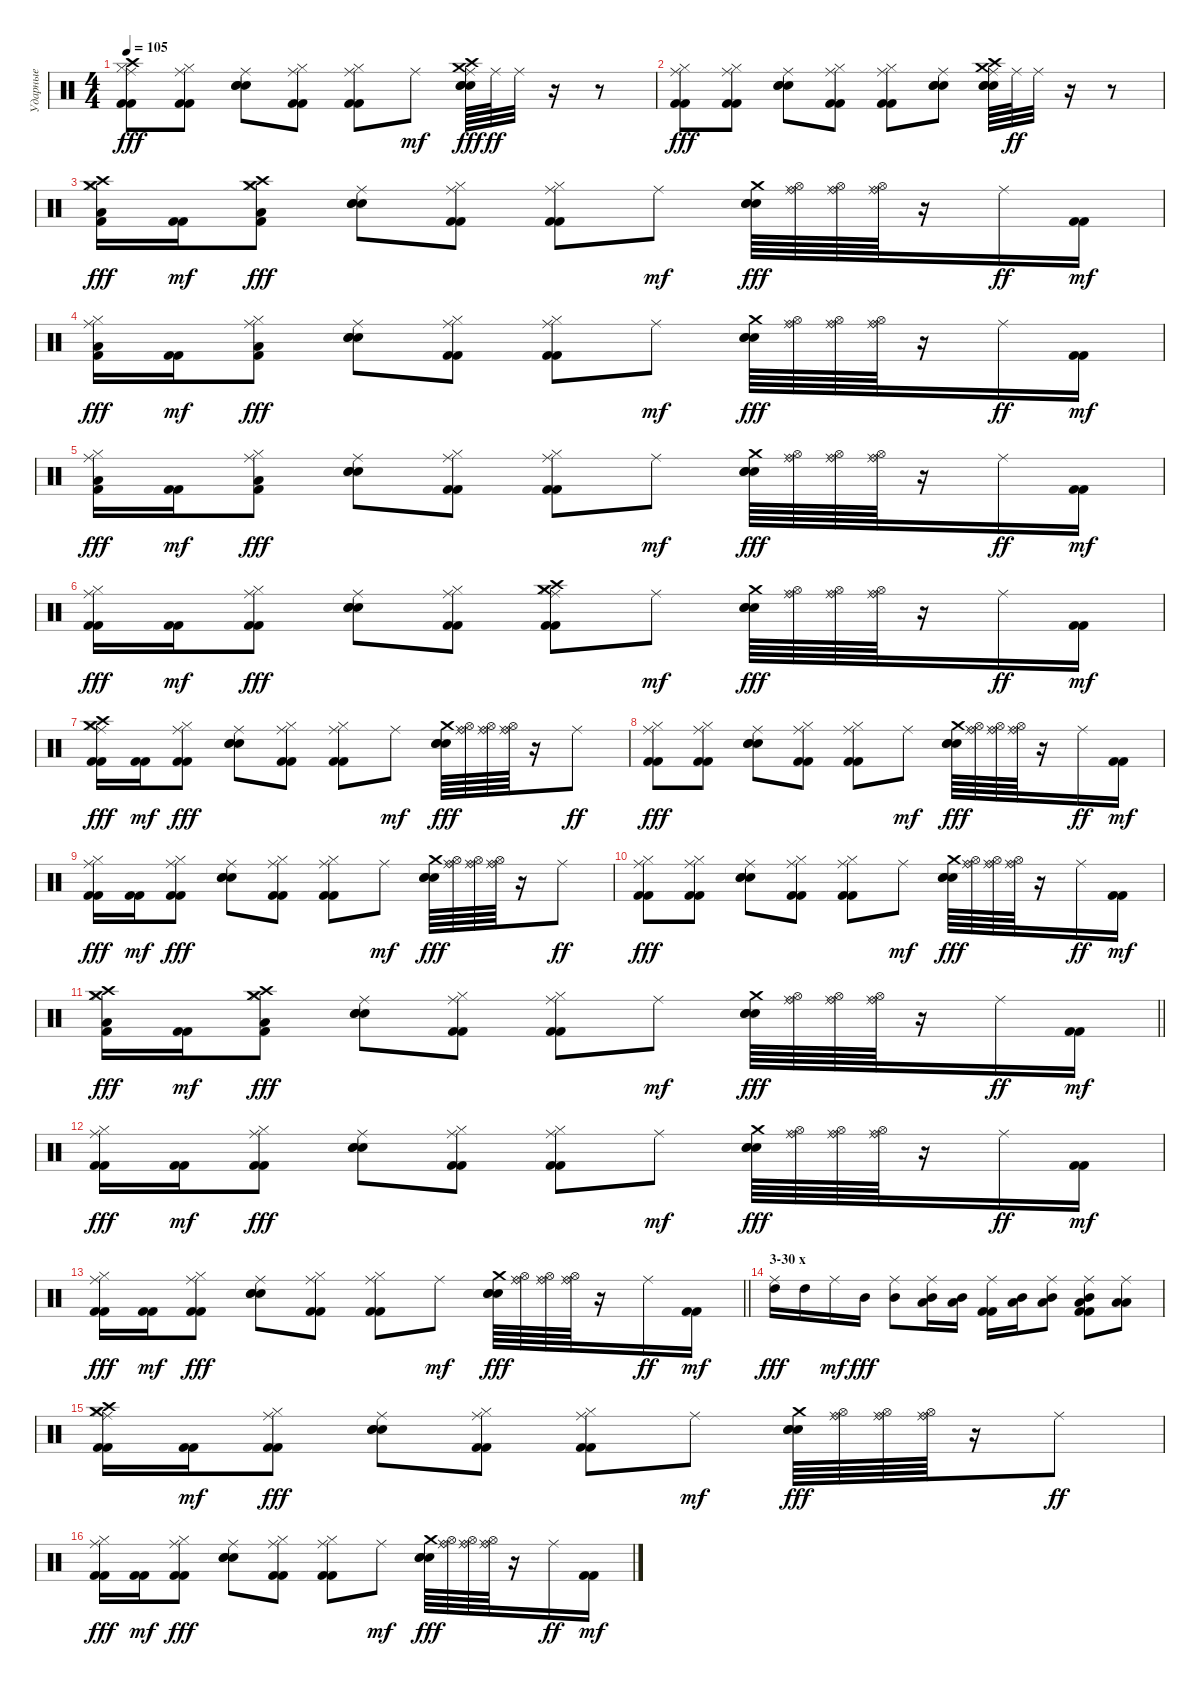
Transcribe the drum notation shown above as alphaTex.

\track ("Ударные" "Ударные") {instrument percussion}
\staff {score}
\articulation defaults
\ts (4 4)
\tempo 105
\clef neutral
\ks c
("Ride (middle)" "Hi-Hat (closed)" "Kick (hit) 2" "Kick (hit) 2" "Crash high (hit)").8{dy fff} ("Ride (middle)" "Hi-Hat (closed)" "Kick (hit) 2" "Kick (hit) 2").8 ("Ride (middle)" "Snare (hit) 2" "Electric Snare (hit)" "Hand Clap (hit)").8 ("Ride (middle)" "Hi-Hat (closed)" "Kick (hit) 2" "Kick (hit) 2").8 ("Ride (middle)" "Hi-Hat (closed)" "Kick (hit) 2" "Kick (hit) 2").8 "Ride (middle)".8{dy mf} ("Ride (middle)" "Crash medium (hit)" "Snare (hit) 2" "Crash high (hit)" "Electric Snare (hit)" "Hand Clap (hit)").64{dy fff} "Ride (middle)".64{dy ff} "Ride (middle)".32 r.16 r.8 |
("Ride (middle)" "Hi-Hat (closed)" "Kick (hit) 2" "Kick (hit) 2").8{dy fff} ("Ride (middle)" "Hi-Hat (closed)" "Kick (hit) 2" "Kick (hit) 2").8 ("Ride (middle)" "Snare (hit) 2" "Electric Snare (hit)" "Hand Clap (hit)").8 ("Ride (middle)" "Hi-Hat (closed)" "Kick (hit) 2" "Kick (hit) 2").8 ("Ride (middle)" "Hi-Hat (closed)" "Kick (hit) 2" "Kick (hit) 2").8 ("Ride (middle)" "Snare (hit) 2" "Electric Snare (hit)" "Hand Clap (hit)").8 ("Ride (middle)" "Crash medium (hit)" "Snare (hit) 2" "Crash high (hit)" "Electric Snare (hit)" "Hand Clap (hit)").64 "Ride (middle)".64{dy ff} "Ride (middle)".32 r.16 r.8 |
("Crash medium (hit)" "Crash high (hit)" "Hi-Hat (closed)" "Kick (hit) 2" "Low Floor Tom (hit)").16{dy fff} ("Kick (hit) 2" "Kick (hit) 2").16{dy mf} ("Crash medium (hit)" "Crash high (hit)" "Hi-Hat (closed)" "Kick (hit) 2" "Low Floor Tom (hit)").8{dy fff} ("Ride (middle)" "Snare (hit) 2" "Electric Snare (hit)" "Hand Clap (hit)").8 ("Ride (middle)" "Hi-Hat (closed)" "Kick (hit) 2" "Kick (hit) 2").8 ("Ride (middle)" "Hi-Hat (closed)" "Kick (hit) 2" "Kick (hit) 2").8 "Ride (middle)".8{dy mf} ("Crash medium (hit)" "Snare (hit) 2" "Electric Snare (hit)" "Hand Clap (hit)").64{dy fff} ("Ride (middle)" "Hi-Hat (open)" "Ride (bell)").64 ("Ride (middle)" "Hi-Hat (open)" "Ride (bell)").64 ("Ride (middle)" "Hi-Hat (open)" "Ride (bell)").64 r.16 "Ride (middle)".16{dy ff} ("Kick (hit) 2" "Kick (hit) 2").16{dy mf} |
("Ride (middle)" "Hi-Hat (closed)" "Kick (hit) 2" "Low Floor Tom (hit)").16{dy fff} ("Kick (hit) 2" "Kick (hit) 2").16{dy mf} ("Ride (middle)" "Hi-Hat (closed)" "Kick (hit) 2" "Low Floor Tom (hit)").8{dy fff} ("Ride (middle)" "Snare (hit) 2" "Electric Snare (hit)" "Hand Clap (hit)").8 ("Ride (middle)" "Hi-Hat (closed)" "Kick (hit) 2" "Kick (hit) 2").8 ("Ride (middle)" "Hi-Hat (closed)" "Kick (hit) 2" "Kick (hit) 2").8 "Ride (middle)".8{dy mf} ("Crash medium (hit)" "Snare (hit) 2" "Electric Snare (hit)" "Hand Clap (hit)").64{dy fff} ("Ride (middle)" "Hi-Hat (open)" "Ride (bell)").64 ("Ride (middle)" "Hi-Hat (open)" "Ride (bell)").64 ("Ride (middle)" "Hi-Hat (open)" "Ride (bell)").64 r.16 "Ride (middle)".16{dy ff} ("Kick (hit) 2" "Kick (hit) 2").16{dy mf} |
("Ride (middle)" "Hi-Hat (closed)" "Kick (hit) 2" "Low Floor Tom (hit)").16{dy fff} ("Kick (hit) 2" "Kick (hit) 2").16{dy mf} ("Ride (middle)" "Hi-Hat (closed)" "Kick (hit) 2" "Low Floor Tom (hit)").8{dy fff} ("Ride (middle)" "Snare (hit) 2" "Electric Snare (hit)" "Hand Clap (hit)").8 ("Ride (middle)" "Hi-Hat (closed)" "Kick (hit) 2" "Kick (hit) 2").8 ("Ride (middle)" "Hi-Hat (closed)" "Kick (hit) 2" "Kick (hit) 2").8 "Ride (middle)".8{dy mf} ("Crash medium (hit)" "Snare (hit) 2" "Electric Snare (hit)" "Hand Clap (hit)").64{dy fff} ("Ride (middle)" "Hi-Hat (open)" "Ride (bell)").64 ("Ride (middle)" "Hi-Hat (open)" "Ride (bell)").64 ("Ride (middle)" "Hi-Hat (open)" "Ride (bell)").64 r.16 "Ride (middle)".16{dy ff} ("Kick (hit) 2" "Kick (hit) 2").16{dy mf} |
("Ride (middle)" "Hi-Hat (closed)" "Kick (hit) 2" "Kick (hit) 2").16{dy fff} ("Kick (hit) 2" "Kick (hit) 2").16{dy mf} ("Ride (middle)" "Hi-Hat (closed)" "Kick (hit) 2" "Kick (hit) 2").8{dy fff} ("Ride (middle)" "Snare (hit) 2" "Electric Snare (hit)" "Hand Clap (hit)").8 ("Ride (middle)" "Hi-Hat (closed)" "Kick (hit) 2" "Kick (hit) 2").8 ("Ride (middle)" "Crash high (hit)" "Hi-Hat (closed)" "Kick (hit) 2" "Kick (hit) 2" "Crash medium (hit)").8 "Ride (middle)".8{dy mf} ("Crash medium (hit)" "Snare (hit) 2" "Electric Snare (hit)" "Hand Clap (hit)").64{dy fff} ("Ride (middle)" "Hi-Hat (open)" "Ride (bell)").64 ("Ride (middle)" "Hi-Hat (open)" "Ride (bell)").64 ("Ride (middle)" "Hi-Hat (open)" "Ride (bell)").64 r.16 "Ride (middle)".16{dy ff} ("Kick (hit) 2" "Kick (hit) 2").16{dy mf} |
("Ride (middle)" "Crash high (hit)" "Hi-Hat (closed)" "Kick (hit) 2" "Kick (hit) 2" "Crash medium (hit)").16{dy fff} ("Kick (hit) 2" "Kick (hit) 2").16{dy mf} ("Ride (middle)" "Hi-Hat (closed)" "Kick (hit) 2" "Kick (hit) 2").8{dy fff} ("Ride (middle)" "Snare (hit) 2" "Electric Snare (hit)" "Hand Clap (hit)").8 ("Ride (middle)" "Hi-Hat (closed)" "Kick (hit) 2" "Kick (hit) 2").8 ("Ride (middle)" "Hi-Hat (closed)" "Kick (hit) 2" "Kick (hit) 2").8 "Ride (middle)".8{dy mf} ("Crash medium (hit)" "Snare (hit) 2" "Electric Snare (hit)" "Hand Clap (hit)").64{dy fff} ("Ride (middle)" "Hi-Hat (open)" "Ride (bell)").64 ("Ride (middle)" "Hi-Hat (open)" "Ride (bell)").64 ("Ride (middle)" "Hi-Hat (open)" "Ride (bell)").64 r.16 "Ride (middle)".8{dy ff} |
("Ride (middle)" "Hi-Hat (closed)" "Kick (hit) 2" "Kick (hit) 2").8{dy fff} ("Ride (middle)" "Hi-Hat (closed)" "Kick (hit) 2" "Kick (hit) 2").8 ("Ride (middle)" "Snare (hit) 2" "Electric Snare (hit)" "Hand Clap (hit)").8 ("Ride (middle)" "Hi-Hat (closed)" "Kick (hit) 2" "Kick (hit) 2").8 ("Ride (middle)" "Hi-Hat (closed)" "Kick (hit) 2" "Kick (hit) 2").8 "Ride (middle)".8{dy mf} ("Crash medium (hit)" "Snare (hit) 2" "Electric Snare (hit)" "Hand Clap (hit)").64{dy fff} ("Ride (middle)" "Hi-Hat (open)" "Ride (bell)").64 ("Ride (middle)" "Hi-Hat (open)" "Ride (bell)").64 ("Ride (middle)" "Hi-Hat (open)" "Ride (bell)").64 r.16 "Ride (middle)".16{dy ff} ("Kick (hit) 2" "Kick (hit) 2").16{dy mf} |
("Ride (middle)" "Hi-Hat (closed)" "Kick (hit) 2" "Kick (hit) 2").16{dy fff} ("Kick (hit) 2" "Kick (hit) 2").16{dy mf} ("Ride (middle)" "Hi-Hat (closed)" "Kick (hit) 2" "Kick (hit) 2").8{dy fff} ("Ride (middle)" "Snare (hit) 2" "Electric Snare (hit)" "Hand Clap (hit)").8 ("Ride (middle)" "Hi-Hat (closed)" "Kick (hit) 2" "Kick (hit) 2").8 ("Ride (middle)" "Hi-Hat (closed)" "Kick (hit) 2" "Kick (hit) 2").8 "Ride (middle)".8{dy mf} ("Crash medium (hit)" "Snare (hit) 2" "Electric Snare (hit)" "Hand Clap (hit)").64{dy fff} ("Ride (middle)" "Hi-Hat (open)" "Ride (bell)").64 ("Ride (middle)" "Hi-Hat (open)" "Ride (bell)").64 ("Ride (middle)" "Hi-Hat (open)" "Ride (bell)").64 r.16 "Ride (middle)".8{dy ff} |
("Ride (middle)" "Hi-Hat (closed)" "Kick (hit) 2" "Kick (hit) 2").8{dy fff} ("Ride (middle)" "Hi-Hat (closed)" "Kick (hit) 2" "Kick (hit) 2").8 ("Ride (middle)" "Snare (hit) 2" "Electric Snare (hit)" "Hand Clap (hit)").8 ("Ride (middle)" "Hi-Hat (closed)" "Kick (hit) 2" "Kick (hit) 2").8 ("Ride (middle)" "Hi-Hat (closed)" "Kick (hit) 2" "Kick (hit) 2").8 "Ride (middle)".8{dy mf} ("Crash medium (hit)" "Snare (hit) 2" "Electric Snare (hit)" "Hand Clap (hit)").64{dy fff} ("Ride (middle)" "Hi-Hat (open)" "Ride (bell)").64 ("Ride (middle)" "Hi-Hat (open)" "Ride (bell)").64 ("Ride (middle)" "Hi-Hat (open)" "Ride (bell)").64 r.16 "Ride (middle)".16{dy ff} ("Kick (hit) 2" "Kick (hit) 2").16{dy mf} |
\barLineRight lightlight
("Crash medium (hit)" "Crash high (hit)" "Hi-Hat (closed)" "Kick (hit) 2" "Low Floor Tom (hit)").16{dy fff} ("Kick (hit) 2" "Kick (hit) 2").16{dy mf} ("Crash medium (hit)" "Crash high (hit)" "Hi-Hat (closed)" "Kick (hit) 2" "Low Floor Tom (hit)").8{dy fff} ("Ride (middle)" "Snare (hit) 2" "Electric Snare (hit)" "Hand Clap (hit)").8 ("Ride (middle)" "Hi-Hat (closed)" "Kick (hit) 2" "Kick (hit) 2").8 ("Ride (middle)" "Hi-Hat (closed)" "Kick (hit) 2" "Kick (hit) 2").8 "Ride (middle)".8{dy mf} ("Crash medium (hit)" "Snare (hit) 2" "Electric Snare (hit)" "Hand Clap (hit)").64{dy fff} ("Ride (middle)" "Hi-Hat (open)" "Ride (bell)").64 ("Ride (middle)" "Hi-Hat (open)" "Ride (bell)").64 ("Ride (middle)" "Hi-Hat (open)" "Ride (bell)").64 r.16 "Ride (middle)".16{dy ff} ("Kick (hit) 2" "Kick (hit) 2").16{dy mf} |
("Ride (middle)" "Hi-Hat (closed)" "Kick (hit) 2" "Kick (hit) 2").16{dy fff} ("Kick (hit) 2" "Kick (hit) 2").16{dy mf} ("Ride (middle)" "Hi-Hat (closed)" "Kick (hit) 2" "Kick (hit) 2").8{dy fff} ("Ride (middle)" "Snare (hit) 2" "Electric Snare (hit)" "Hand Clap (hit)").8 ("Ride (middle)" "Hi-Hat (closed)" "Kick (hit) 2" "Kick (hit) 2").8 ("Ride (middle)" "Hi-Hat (closed)" "Kick (hit) 2" "Kick (hit) 2").8 "Ride (middle)".8{dy mf} ("Crash medium (hit)" "Snare (hit) 2" "Electric Snare (hit)" "Hand Clap (hit)").64{dy fff} ("Ride (middle)" "Hi-Hat (open)" "Ride (bell)").64 ("Ride (middle)" "Hi-Hat (open)" "Ride (bell)").64 ("Ride (middle)" "Hi-Hat (open)" "Ride (bell)").64 r.16 "Ride (middle)".16{dy ff} ("Kick (hit) 2" "Kick (hit) 2").16{dy mf} |
\barLineRight lightlight
("Ride (middle)" "Hi-Hat (closed)" "Kick (hit) 2" "Kick (hit) 2").16{dy fff} ("Kick (hit) 2" "Kick (hit) 2").16{dy mf} ("Ride (middle)" "Hi-Hat (closed)" "Kick (hit) 2" "Kick (hit) 2").8{dy fff} ("Ride (middle)" "Snare (hit) 2" "Electric Snare (hit)" "Hand Clap (hit)").8 ("Ride (middle)" "Hi-Hat (closed)" "Kick (hit) 2" "Kick (hit) 2").8 ("Ride (middle)" "Hi-Hat (closed)" "Kick (hit) 2" "Kick (hit) 2").8 "Ride (middle)".8{dy mf} ("Crash medium (hit)" "Snare (hit) 2" "Electric Snare (hit)" "Hand Clap (hit)").64{dy fff} ("Ride (middle)" "Hi-Hat (open)" "Ride (bell)").64 ("Ride (middle)" "Hi-Hat (open)" "Ride (bell)").64 ("Ride (middle)" "Hi-Hat (open)" "Ride (bell)").64 r.16 "Ride (middle)".16{dy ff} ("Kick (hit) 2" "Kick (hit) 2").16{dy mf} |
\section ("" "3-30 x")
("Ride (middle)" "High Tom (hit)").16{dy fff} "High Tom (hit)".16 "Ride (middle)".16{dy mf} "Mid Tom (hit)".16{dy fff} ("Ride (middle)" "Mid Tom (hit)").8 ("Ride (middle)" "Low Tom (hit)" "Mid Tom (hit)").16 ("Low Tom (hit)" "Mid Tom (hit)").16 ("Ride (middle)" "Kick (hit) 2" "Kick (hit) 2").16 ("Low Tom (hit)" "Mid Tom (hit)").16 ("Ride (middle)" "Low Tom (hit)" "Mid Tom (hit)").8 ("Ride (middle)" "Low Tom (hit)" "Mid Tom (hit)" "Kick (hit) 2" "Kick (hit) 2").8 ("Ride (middle)" "Low Tom (hit)" "Low Tom (hit)").8 |
("Ride (middle)" "Crash high (hit)" "Hi-Hat (closed)" "Kick (hit) 2" "Kick (hit) 2" "Crash medium (hit)").16 ("Kick (hit) 2" "Kick (hit) 2").16{dy mf} ("Ride (middle)" "Hi-Hat (closed)" "Kick (hit) 2" "Kick (hit) 2").8{dy fff} ("Ride (middle)" "Snare (hit) 2" "Electric Snare (hit)" "Hand Clap (hit)").8 ("Ride (middle)" "Hi-Hat (closed)" "Kick (hit) 2" "Kick (hit) 2").8 ("Ride (middle)" "Hi-Hat (closed)" "Kick (hit) 2" "Kick (hit) 2").8 "Ride (middle)".8{dy mf} ("Crash medium (hit)" "Snare (hit) 2" "Electric Snare (hit)" "Hand Clap (hit)").64{dy fff} ("Ride (middle)" "Hi-Hat (open)" "Ride (bell)").64 ("Ride (middle)" "Hi-Hat (open)" "Ride (bell)").64 ("Ride (middle)" "Hi-Hat (open)" "Ride (bell)").64 r.16 "Ride (middle)".8{dy ff} |
("Ride (middle)" "Hi-Hat (closed)" "Kick (hit) 2" "Kick (hit) 2").16{dy fff} ("Kick (hit) 2" "Kick (hit) 2").16{dy mf} ("Ride (middle)" "Hi-Hat (closed)" "Kick (hit) 2" "Kick (hit) 2").8{dy fff} ("Ride (middle)" "Snare (hit) 2" "Electric Snare (hit)" "Hand Clap (hit)").8 ("Ride (middle)" "Hi-Hat (closed)" "Kick (hit) 2" "Kick (hit) 2").8 ("Ride (middle)" "Hi-Hat (closed)" "Kick (hit) 2" "Kick (hit) 2").8 "Ride (middle)".8{dy mf} ("Crash medium (hit)" "Snare (hit) 2" "Electric Snare (hit)" "Hand Clap (hit)").64{dy fff} ("Ride (middle)" "Hi-Hat (open)" "Ride (bell)").64 ("Ride (middle)" "Hi-Hat (open)" "Ride (bell)").64 ("Ride (middle)" "Hi-Hat (open)" "Ride (bell)").64 r.16 "Ride (middle)".16{dy ff} ("Kick (hit) 2" "Kick (hit) 2").16{dy mf}
